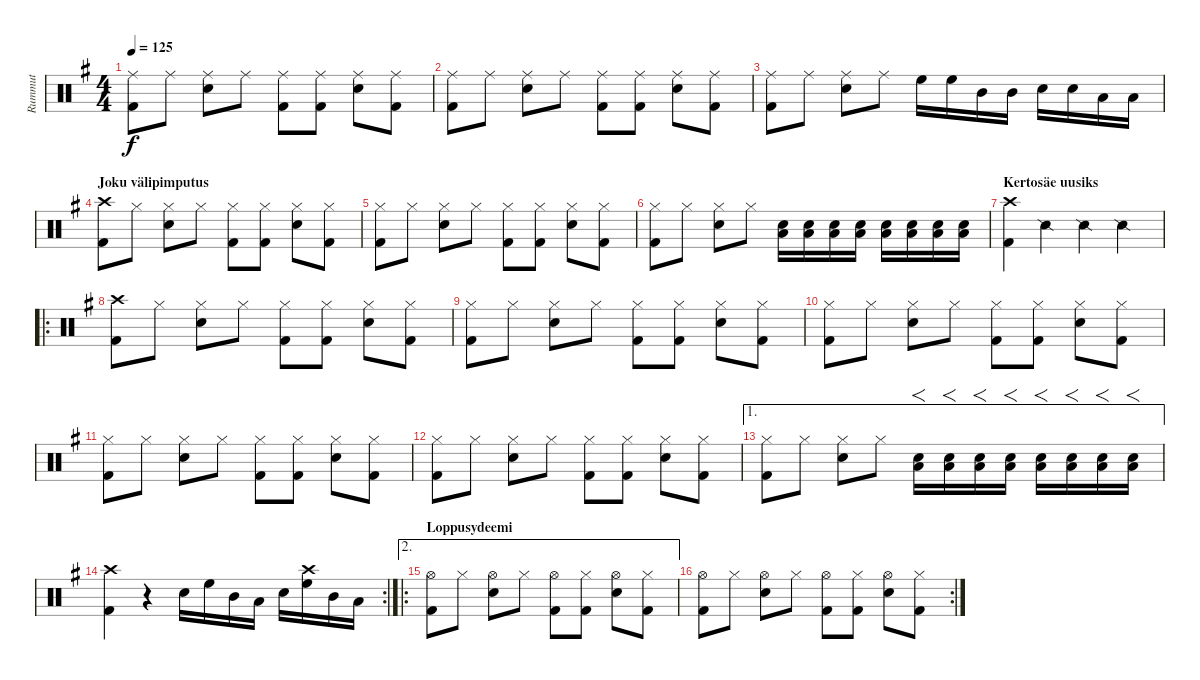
\track ("Rummut" "Rummut") {instrument percussion}
\staff {score}
\articulation defaults
\ts (4 4)
\tempo 125
\clef neutral
\ks g
("Ride (middle)" "Kick (hit) 2").8{dy f} "Ride (middle)".8 ("Ride (middle)" "Snare (hit) 2").8 "Ride (middle)".8 ("Ride (middle)" "Kick (hit) 2").8 ("Ride (middle)" "Kick (hit) 2").8 ("Ride (middle)" "Snare (hit) 2").8 ("Ride (middle)" "Kick (hit) 2").8 |
("Ride (middle)" "Kick (hit) 2").8 "Ride (middle)".8 ("Ride (middle)" "Snare (hit) 2").8 "Ride (middle)".8 ("Ride (middle)" "Kick (hit) 2").8 ("Ride (middle)" "Kick (hit) 2").8 ("Ride (middle)" "Snare (hit) 2").8 ("Ride (middle)" "Kick (hit) 2").8 |
("Ride (middle)" "Kick (hit) 2").8 "Ride (middle)".8 ("Ride (middle)" "Snare (hit) 2").8 "Ride (middle)".8 "High Floor Tom (hit)".16 "High Floor Tom (hit)".16 "Mid Tom (hit)".16 "Mid Tom (hit)".16 "Snare (hit) 2".16 "Snare (hit) 2".16 "Low Tom (hit)".16 "Low Tom (hit)".16 |
\section ("" "Joku välipimputus")
("Crash high (hit)" "Kick (hit) 2").8 "Hi-Hat (closed)".8 ("Hi-Hat (closed)" "Snare (hit) 2").8 "Hi-Hat (closed)".8 ("Hi-Hat (closed)" "Kick (hit) 2").8 ("Hi-Hat (closed)" "Kick (hit) 2").8 ("Hi-Hat (closed)" "Snare (hit) 2").8 ("Hi-Hat (closed)" "Kick (hit) 2").8 |
("Hi-Hat (closed)" "Kick (hit) 2").8 "Hi-Hat (closed)".8 ("Hi-Hat (closed)" "Snare (hit) 2").8 "Hi-Hat (closed)".8 ("Hi-Hat (closed)" "Kick (hit) 2").8 ("Hi-Hat (closed)" "Kick (hit) 2").8 ("Hi-Hat (closed)" "Snare (hit) 2").8 ("Hi-Hat (closed)" "Kick (hit) 2").8 |
("Hi-Hat (closed)" "Kick (hit) 2").8 "Hi-Hat (closed)".8 ("Snare (hit) 2" "Hi-Hat (closed)").8 "Hi-Hat (closed)".8 ("Snare (hit) 2" "Low Floor Tom (hit)").16 ("Snare (hit) 2" "Low Floor Tom (hit)").16 ("Snare (hit) 2" "Low Floor Tom (hit)").16 ("Snare (hit) 2" "Low Floor Tom (hit)").16 ("Snare (hit) 2" "Low Floor Tom (hit)").16 ("Snare (hit) 2" "Low Floor Tom (hit)").16 ("Snare (hit) 2" "Low Floor Tom (hit)").16 ("Snare (hit) 2" "Low Floor Tom (hit)").16 |
\section ("" "Kertosäe uusiks")
("Crash high (hit)" "Kick (hit) 2").4 "Snare (side stick) 2".4 "Snare (side stick) 2".4 "Snare (side stick) 2".4 |
\ro
("Crash high (hit)" "Kick (hit) 2").8 "Hi-Hat (closed)".8 ("Hi-Hat (closed)" "Snare (hit) 2").8 "Hi-Hat (closed)".8 ("Hi-Hat (closed)" "Kick (hit) 2").8 ("Hi-Hat (closed)" "Kick (hit) 2").8 ("Hi-Hat (closed)" "Snare (hit) 2").8 ("Hi-Hat (closed)" "Kick (hit) 2").8 |
("Hi-Hat (closed)" "Kick (hit) 2").8 "Hi-Hat (closed)".8 ("Snare (hit) 2" "Hi-Hat (closed)").8 "Hi-Hat (closed)".8 ("Hi-Hat (closed)" "Kick (hit) 2").8 ("Hi-Hat (closed)" "Kick (hit) 2").8 ("Hi-Hat (closed)" "Snare (hit) 2").8 ("Hi-Hat (closed)" "Kick (hit) 2").8 |
("Hi-Hat (closed)" "Kick (hit) 2").8 "Hi-Hat (closed)".8 ("Hi-Hat (closed)" "Snare (hit) 2").8 "Hi-Hat (closed)".8 ("Hi-Hat (closed)" "Kick (hit) 2").8 ("Hi-Hat (closed)" "Kick (hit) 2").8 ("Hi-Hat (closed)" "Snare (hit) 2").8 ("Hi-Hat (closed)" "Kick (hit) 2").8 |
("Hi-Hat (closed)" "Kick (hit) 2").8 "Hi-Hat (closed)".8 ("Hi-Hat (closed)" "Snare (hit) 2").8 "Hi-Hat (closed)".8 ("Hi-Hat (closed)" "Kick (hit) 2").8 ("Hi-Hat (closed)" "Kick (hit) 2").8 ("Hi-Hat (closed)" "Snare (hit) 2").8 ("Hi-Hat (closed)" "Kick (hit) 2").8 |
("Hi-Hat (closed)" "Kick (hit) 2").8 "Hi-Hat (closed)".8 ("Hi-Hat (closed)" "Snare (hit) 2").8 "Hi-Hat (closed)".8 ("Hi-Hat (closed)" "Kick (hit) 2").8 ("Hi-Hat (closed)" "Kick (hit) 2").8 ("Hi-Hat (closed)" "Snare (hit) 2").8 ("Hi-Hat (closed)" "Kick (hit) 2").8 |
\ae 1
("Hi-Hat (closed)" "Kick (hit) 2").8 "Hi-Hat (closed)".8 ("Hi-Hat (closed)" "Snare (hit) 2").8 "Hi-Hat (closed)".8 ("Snare (hit) 2" "Low Floor Tom (hit)").16{f} ("Snare (hit) 2" "Low Floor Tom (hit)").16{f} ("Snare (hit) 2" "Low Floor Tom (hit)").16{f} ("Snare (hit) 2" "Low Floor Tom (hit)").16{f} ("Snare (hit) 2" "Low Floor Tom (hit)").16{f} ("Snare (hit) 2" "Low Floor Tom (hit)").16{f} ("Snare (hit) 2" "Low Floor Tom (hit)").16{f} ("Snare (hit) 2" "Low Floor Tom (hit)").16{f} |
\rc 2
("Crash high (hit)" "Kick (hit) 2").4 r.4 "Snare (hit) 2".16 "High Floor Tom (hit)".16 "Mid Tom (hit)".16 "Low Tom (hit)".16 "Snare (hit) 2".16 ("Crash high (hit)" "High Floor Tom (hit)").16 "Mid Tom (hit)".16 "Low Tom (hit)".16 |
\ae 2
\ro
\section ("" "Loppusydeemi")
("Hi-Hat (open)" "Kick (hit) 2").8 "Hi-Hat (closed)".8 ("Snare (hit) 2" "Hi-Hat (open)").8 "Hi-Hat (closed)".8 ("Hi-Hat (open)" "Kick (hit) 2").8 ("Hi-Hat (closed)" "Kick (hit) 2").8 ("Hi-Hat (open)" "Snare (hit) 2").8 ("Hi-Hat (closed)" "Kick (hit) 2").8 |
\rc 2
("Hi-Hat (open)" "Kick (hit) 2").8 "Hi-Hat (closed)".8 ("Snare (hit) 2" "Hi-Hat (open)").8 "Hi-Hat (closed)".8 ("Hi-Hat (open)" "Kick (hit) 2").8 ("Hi-Hat (closed)" "Kick (hit) 2").8 ("Hi-Hat (open)" "Snare (hit) 2").8 ("Hi-Hat (closed)" "Kick (hit) 2").8
